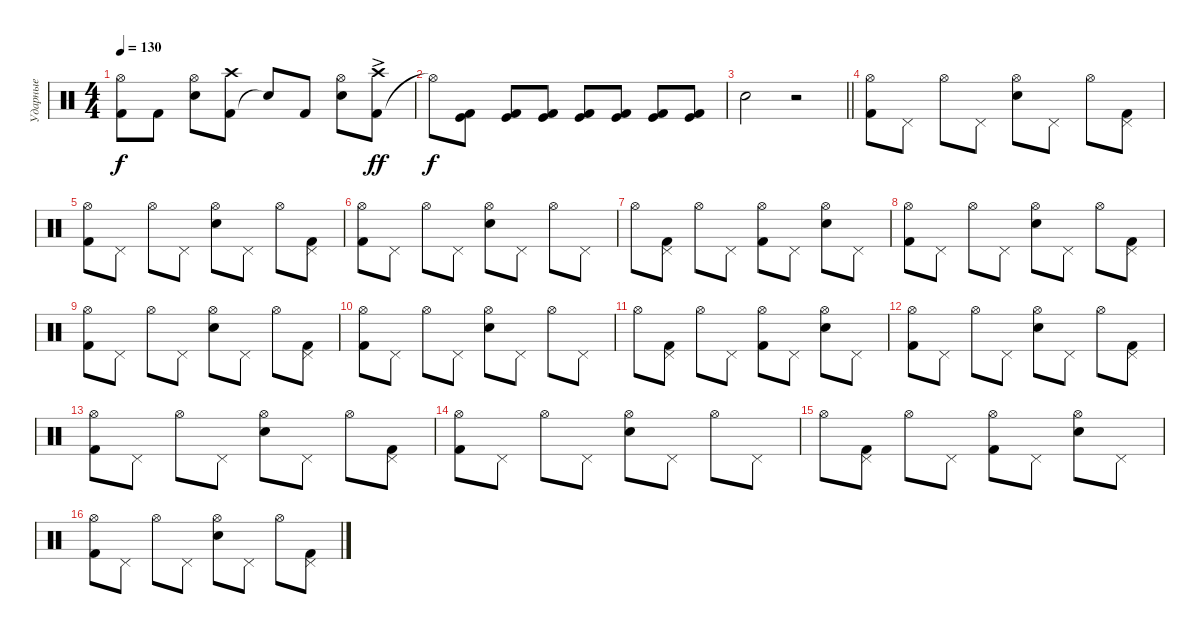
\track ("Ударные" "Ударные") {instrument percussion}
\staff
\articulation defaults
\ts (4 4)
\tempo 130
\clef neutral
\ks c
("Kick (hit) 2" "Hi-Hat (open)").8{dy f} "Kick (hit) 2".8 ("Snare (hit) 2" "Hi-Hat (open)").8 ("Kick (hit) 2" "Crash high (hit)").8 "Snare (hit)"{t}.8 "Kick (hit) 2".8 ("Snare (hit) 2" "Hi-Hat (open)").8 ("Kick (hit) 2" "Crash high (hit)"{ac}).8{dy ff} |
"Hi-Hat (open)"{t}.8{dy f} ("Kick (hit) 2" "Kick (hit)").8 ("Kick (hit) 2" "Kick (hit)").8 ("Kick (hit) 2" "Kick (hit)").8 ("Kick (hit) 2" "Kick (hit)").8 ("Kick (hit) 2" "Kick (hit)").8 ("Kick (hit) 2" "Kick (hit)").8 ("Kick (hit) 2" "Kick (hit)").8 |
\barLineRight lightlight "Snare (hit) 2".2
r.2 |
("Kick (hit) 2" "Hi-Hat (open)").8 "Pedal Hi-Hat (hit)".8 "Hi-Hat (open)".8 "Pedal Hi-Hat (hit)".8 ("Snare (hit) 2" "Hi-Hat (open)").8 "Pedal Hi-Hat (hit)".8 "Hi-Hat (open)".8 ("Kick (hit) 2" "Pedal Hi-Hat (hit)").8 |
("Kick (hit) 2" "Hi-Hat (open)").8 "Pedal Hi-Hat (hit)".8 "Hi-Hat (open)".8 "Pedal Hi-Hat (hit)".8 ("Snare (hit) 2" "Hi-Hat (open)").8 "Pedal Hi-Hat (hit)".8 "Hi-Hat (open)".8 ("Kick (hit) 2" "Pedal Hi-Hat (hit)").8 |
("Kick (hit) 2" "Hi-Hat (open)").8 "Pedal Hi-Hat (hit)".8 "Hi-Hat (open)".8 "Pedal Hi-Hat (hit)".8 ("Snare (hit) 2" "Hi-Hat (open)").8 "Pedal Hi-Hat (hit)".8 "Hi-Hat (open)".8 "Pedal Hi-Hat (hit)".8 |
"Hi-Hat (open)".8 ("Kick (hit) 2" "Pedal Hi-Hat (hit)").8 "Hi-Hat (open)".8 "Pedal Hi-Hat (hit)".8 ("Kick (hit) 2" "Hi-Hat (open)").8 "Pedal Hi-Hat (hit)".8 ("Snare (hit) 2" "Hi-Hat (open)").8 "Pedal Hi-Hat (hit)".8 |
("Kick (hit) 2" "Hi-Hat (open)").8 "Pedal Hi-Hat (hit)".8 "Hi-Hat (open)".8 "Pedal Hi-Hat (hit)".8 ("Snare (hit) 2" "Hi-Hat (open)").8 "Pedal Hi-Hat (hit)".8 "Hi-Hat (open)".8 ("Kick (hit) 2" "Pedal Hi-Hat (hit)").8 |
("Kick (hit) 2" "Hi-Hat (open)").8 "Pedal Hi-Hat (hit)".8 "Hi-Hat (open)".8 "Pedal Hi-Hat (hit)".8 ("Snare (hit) 2" "Hi-Hat (open)").8 "Pedal Hi-Hat (hit)".8 "Hi-Hat (open)".8 ("Kick (hit) 2" "Pedal Hi-Hat (hit)").8 |
("Kick (hit) 2" "Hi-Hat (open)").8 "Pedal Hi-Hat (hit)".8 "Hi-Hat (open)".8 "Pedal Hi-Hat (hit)".8 ("Snare (hit) 2" "Hi-Hat (open)").8 "Pedal Hi-Hat (hit)".8 "Hi-Hat (open)".8 "Pedal Hi-Hat (hit)".8 |
"Hi-Hat (open)".8 ("Kick (hit) 2" "Pedal Hi-Hat (hit)").8 "Hi-Hat (open)".8 "Pedal Hi-Hat (hit)".8 ("Kick (hit) 2" "Hi-Hat (open)").8 "Pedal Hi-Hat (hit)".8 ("Snare (hit) 2" "Hi-Hat (open)").8 "Pedal Hi-Hat (hit)".8 |
("Kick (hit) 2" "Hi-Hat (open)").8 "Pedal Hi-Hat (hit)".8 "Hi-Hat (open)".8 "Pedal Hi-Hat (hit)".8 ("Snare (hit) 2" "Hi-Hat (open)").8 "Pedal Hi-Hat (hit)".8 "Hi-Hat (open)".8 ("Kick (hit) 2" "Pedal Hi-Hat (hit)").8 |
("Kick (hit) 2" "Hi-Hat (open)").8 "Pedal Hi-Hat (hit)".8 "Hi-Hat (open)".8 "Pedal Hi-Hat (hit)".8 ("Snare (hit) 2" "Hi-Hat (open)").8 "Pedal Hi-Hat (hit)".8 "Hi-Hat (open)".8 ("Kick (hit) 2" "Pedal Hi-Hat (hit)").8 |
("Kick (hit) 2" "Hi-Hat (open)").8 "Pedal Hi-Hat (hit)".8 "Hi-Hat (open)".8 "Pedal Hi-Hat (hit)".8 ("Snare (hit) 2" "Hi-Hat (open)").8 "Pedal Hi-Hat (hit)".8 "Hi-Hat (open)".8 "Pedal Hi-Hat (hit)".8 |
"Hi-Hat (open)".8 ("Kick (hit) 2" "Pedal Hi-Hat (hit)").8 "Hi-Hat (open)".8 "Pedal Hi-Hat (hit)".8 ("Kick (hit) 2" "Hi-Hat (open)").8 "Pedal Hi-Hat (hit)".8 ("Snare (hit) 2" "Hi-Hat (open)").8 "Pedal Hi-Hat (hit)".8 |
("Kick (hit) 2" "Hi-Hat (open)").8 "Pedal Hi-Hat (hit)".8 "Hi-Hat (open)".8 "Pedal Hi-Hat (hit)".8 ("Snare (hit) 2" "Hi-Hat (open)").8 "Pedal Hi-Hat (hit)".8 "Hi-Hat (open)".8 ("Kick (hit) 2" "Pedal Hi-Hat (hit)").8
